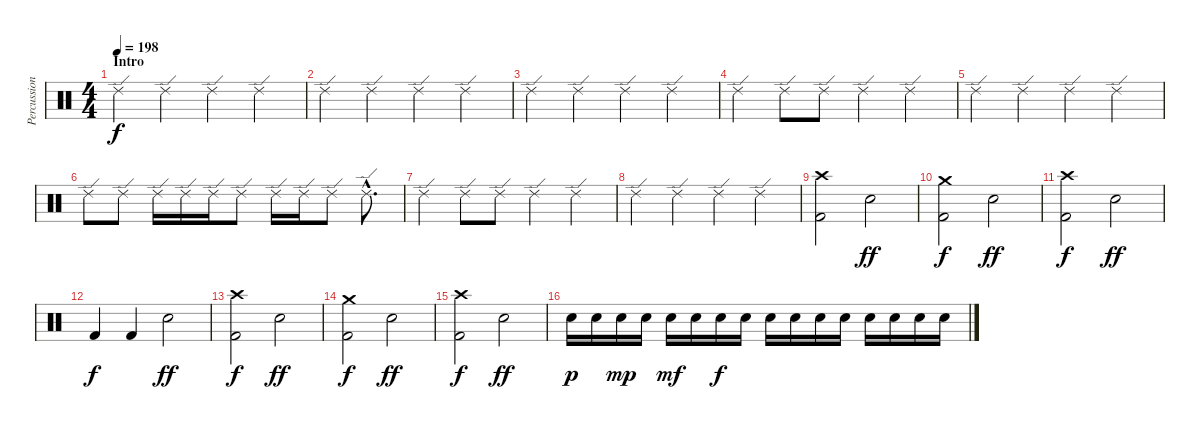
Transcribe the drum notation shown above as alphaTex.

\track ("Percussion" "Percussion") {instrument percussion}
\staff {score}
\articulation defaults
\ts (4 4)
\section ("" "Intro")
\tempo 198
\clef neutral
\ks c "Ride (edge) 2".4{dy f volume 9} "Ride (edge) 2".4 "Ride (edge) 2".4 "Ride (edge) 2".4
|
"Ride (edge) 2".4 "Ride (edge) 2".4 "Ride (edge) 2".4 "Ride (edge) 2".4 |
"Ride (edge) 2".4 "Ride (edge) 2".4 "Ride (edge) 2".4 "Ride (edge) 2".4 |
"Ride (edge) 2".4 "Ride (edge) 2".8 "Ride (edge) 2".8 "Ride (edge) 2".4 "Ride (edge) 2".4 |
"Ride (edge) 2".4 "Ride (edge) 2".4 "Ride (edge) 2".4 "Ride (edge) 2".4 |
"Ride (edge) 2".8 "Ride (edge) 2".8 "Ride (edge) 2".16 "Ride (edge) 2".16 "Ride (edge) 2".16 "Ride (edge) 2".8 "Ride (edge) 2".16 "Ride (edge) 2".16 "Ride (edge) 2".8 "Ride (edge) 2"{hac}.8{d} |
"Ride (edge) 2".4 "Ride (edge) 2".8 "Ride (edge) 2".8 "Ride (edge) 2".4 "Ride (edge) 2".4 |
"Ride (edge) 2".4 "Ride (edge) 2".4 "Ride (edge) 2".4 "Ride (edge) 2".4 |
("Crash high (hit)" "Kick (hit) 2").2{volume 11} "Electric Snare (hit)".2{dy ff} |
("Crash medium (hit)" "Kick (hit) 2").2{dy f} "Electric Snare (hit)".2{dy ff} |
("Crash high (hit)" "Kick (hit) 2").2{dy f} "Electric Snare (hit)".2{dy ff} |
"Kick (hit) 2".4{dy f} "Kick (hit) 2".4 "Electric Snare (hit)".2{dy ff} |
("Crash high (hit)" "Kick (hit) 2").2{dy f} "Electric Snare (hit)".2{dy ff} |
("Crash medium (hit)" "Kick (hit) 2").2{dy f} "Electric Snare (hit)".2{dy ff} |
("Crash high (hit)" "Kick (hit) 2").2{dy f} "Electric Snare (hit)".2{dy ff} |
"Snare (hit) 2".16{dy p} "Snare (hit) 2".16 "Snare (hit) 2".16{dy mp} "Snare (hit) 2".16 "Snare (hit) 2".16{dy mf} "Snare (hit) 2".16 "Snare (hit) 2".16{dy f} "Snare (hit) 2".16 "Snare (hit) 2".16 "Snare (hit) 2".16 "Snare (hit) 2".16 "Snare (hit) 2".16 "Snare (hit) 2".16 "Snare (hit) 2".16 "Snare (hit) 2".16 "Snare (hit) 2".16
